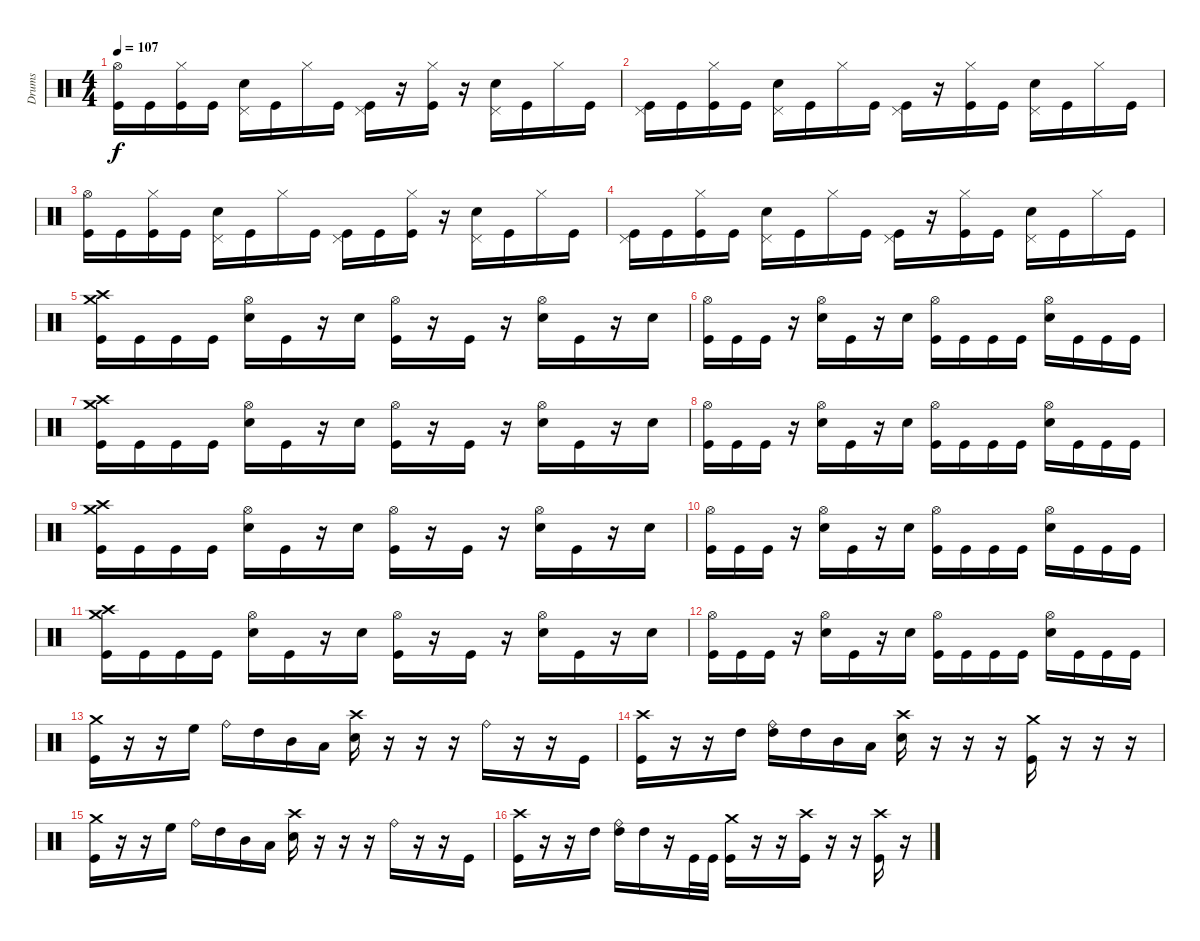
\track ("Drums" "Drums") {instrument percussion}
\staff {score}
\articulation defaults
\ts (4 4)
\tempo 107
\clef neutral
\ks c
("Hi-Hat (open)" "Kick (hit)").16{dy f} "Kick (hit)".16 ("Hi-Hat (closed)" "Kick (hit)").16 "Kick (hit)".16 ("Pedal Hi-Hat (hit)" "Electric Snare (hit)").16 "Kick (hit)".16 "Hi-Hat (closed)".16 "Kick (hit)".16 ("Pedal Hi-Hat (hit)" "Kick (hit)").16 r.16 ("Hi-Hat (closed)" "Kick (hit)").16 r.16 ("Pedal Hi-Hat (hit)" "Electric Snare (hit)").16 "Kick (hit)".16 "Hi-Hat (closed)".16 "Kick (hit)".16 |
("Pedal Hi-Hat (hit)" "Kick (hit)").16 "Kick (hit)".16 ("Hi-Hat (closed)" "Kick (hit)").16 "Kick (hit)".16 ("Pedal Hi-Hat (hit)" "Electric Snare (hit)").16 "Kick (hit)".16 "Hi-Hat (closed)".16 "Kick (hit)".16 ("Pedal Hi-Hat (hit)" "Kick (hit)").16 r.16 ("Hi-Hat (closed)" "Kick (hit)").16 "Kick (hit)".16 ("Pedal Hi-Hat (hit)" "Electric Snare (hit)").16 "Kick (hit)".16 "Hi-Hat (closed)".16 "Kick (hit)".16 |
("Hi-Hat (open)" "Kick (hit)").16 "Kick (hit)".16 ("Hi-Hat (closed)" "Kick (hit)").16 "Kick (hit)".16 ("Pedal Hi-Hat (hit)" "Electric Snare (hit)").16 "Kick (hit)".16 "Hi-Hat (closed)".16 "Kick (hit)".16 ("Pedal Hi-Hat (hit)" "Kick (hit)").16 "Kick (hit)".16 ("Hi-Hat (closed)" "Kick (hit)").16 r.16 ("Pedal Hi-Hat (hit)" "Electric Snare (hit)").16 "Kick (hit)".16 "Hi-Hat (closed)".16 "Kick (hit)".16 |
("Pedal Hi-Hat (hit)" "Kick (hit)").16 "Kick (hit)".16 ("Hi-Hat (closed)" "Kick (hit)").16 "Kick (hit)".16 ("Pedal Hi-Hat (hit)" "Electric Snare (hit)").16 "Kick (hit)".16 "Hi-Hat (closed)".16 "Kick (hit)".16 ("Pedal Hi-Hat (hit)" "Kick (hit)").16 r.16 ("Hi-Hat (closed)" "Kick (hit)").16 "Kick (hit)".16 ("Pedal Hi-Hat (hit)" "Electric Snare (hit)").16 "Kick (hit)".16 "Hi-Hat (closed)".16 "Kick (hit)".16 |
("Crash high (hit)" "Kick (hit)" "Crash medium (hit)").16 "Kick (hit)".16 "Kick (hit)".16 "Kick (hit)".16 ("Hi-Hat (open)" "Electric Snare (hit)").16 "Kick (hit)".16 r.16 "Electric Snare (hit)".16 ("Hi-Hat (open)" "Kick (hit)").16 r.16 "Kick (hit)".16 r.16 ("Hi-Hat (open)" "Electric Snare (hit)").16 "Kick (hit)".16 r.16 "Electric Snare (hit)".16 |
("Hi-Hat (open)" "Kick (hit)").16 "Kick (hit)".16 "Kick (hit)".16 r.16 ("Hi-Hat (open)" "Electric Snare (hit)").16 "Kick (hit)".16 r.16 "Electric Snare (hit)".16 ("Hi-Hat (open)" "Kick (hit)").16 "Kick (hit)".16 "Kick (hit)".16 "Kick (hit)".16 ("Hi-Hat (open)" "Electric Snare (hit)").16 "Kick (hit)".16 "Kick (hit)".16 "Kick (hit)".16 |
("Crash high (hit)" "Kick (hit)" "Crash medium (hit)").16 "Kick (hit)".16 "Kick (hit)".16 "Kick (hit)".16 ("Hi-Hat (open)" "Electric Snare (hit)").16 "Kick (hit)".16 r.16 "Electric Snare (hit)".16 ("Hi-Hat (open)" "Kick (hit)").16 r.16 "Kick (hit)".16 r.16 ("Hi-Hat (open)" "Electric Snare (hit)").16 "Kick (hit)".16 r.16 "Electric Snare (hit)".16 |
("Hi-Hat (open)" "Kick (hit)").16 "Kick (hit)".16 "Kick (hit)".16 r.16 ("Hi-Hat (open)" "Electric Snare (hit)").16 "Kick (hit)".16 r.16 "Electric Snare (hit)".16 ("Hi-Hat (open)" "Kick (hit)").16 "Kick (hit)".16 "Kick (hit)".16 "Kick (hit)".16 ("Hi-Hat (open)" "Electric Snare (hit)").16 "Kick (hit)".16 "Kick (hit)".16 "Kick (hit)".16 |
("Crash high (hit)" "Kick (hit)" "Crash medium (hit)").16 "Kick (hit)".16 "Kick (hit)".16 "Kick (hit)".16 ("Hi-Hat (open)" "Electric Snare (hit)").16 "Kick (hit)".16 r.16 "Electric Snare (hit)".16 ("Hi-Hat (open)" "Kick (hit)").16 r.16 "Kick (hit)".16 r.16 ("Hi-Hat (open)" "Electric Snare (hit)").16 "Kick (hit)".16 r.16 "Electric Snare (hit)".16 |
("Hi-Hat (open)" "Kick (hit)").16 "Kick (hit)".16 "Kick (hit)".16 r.16 ("Hi-Hat (open)" "Electric Snare (hit)").16 "Kick (hit)".16 r.16 "Electric Snare (hit)".16 ("Hi-Hat (open)" "Kick (hit)").16 "Kick (hit)".16 "Kick (hit)".16 "Kick (hit)".16 ("Hi-Hat (open)" "Electric Snare (hit)").16 "Kick (hit)".16 "Kick (hit)".16 "Kick (hit)".16 |
("Crash high (hit)" "Kick (hit)" "Crash medium (hit)").16 "Kick (hit)".16 "Kick (hit)".16 "Kick (hit)".16 ("Hi-Hat (open)" "Electric Snare (hit)").16 "Kick (hit)".16 r.16 "Electric Snare (hit)".16 ("Hi-Hat (open)" "Kick (hit)").16 r.16 "Kick (hit)".16 r.16 ("Hi-Hat (open)" "Electric Snare (hit)").16 "Kick (hit)".16 r.16 "Electric Snare (hit)".16 |
("Hi-Hat (open)" "Kick (hit)").16 "Kick (hit)".16 "Kick (hit)".16 r.16 ("Hi-Hat (open)" "Electric Snare (hit)").16 "Kick (hit)".16 r.16 "Electric Snare (hit)".16 ("Hi-Hat (open)" "Kick (hit)").16 "Kick (hit)".16 "Kick (hit)".16 "Kick (hit)".16 ("Hi-Hat (open)" "Electric Snare (hit)").16 "Kick (hit)".16 "Kick (hit)".16 "Kick (hit)".16 |
("Crash medium (hit)" "Kick (hit)").16 r.16 r.16 "High Floor Tom (hit)".16 "Ride (bell)".16 "High Tom (hit)".16 "Mid Tom (hit)".16 "Low Tom (hit)".16 ("Crash high (hit)" "Electric Snare (hit)").16 r.16 r.16 r.16 "Ride (bell)".16 r.16 r.16 "Kick (hit)".16 |
("Crash high (hit)" "Kick (hit)").16 r.16 r.16 "High Tom (hit)".16 ("Ride (bell)" "High Tom (hit)").16 "High Tom (hit)".16 "Mid Tom (hit)".16 "Low Tom (hit)".16 ("Crash high (hit)" "Electric Snare (hit)").16 r.16 r.16 r.16 ("Crash medium (hit)" "Kick (hit)").16 r.16 r.16 r.16 |
("Crash medium (hit)" "Kick (hit)").16 r.16 r.16 "High Floor Tom (hit)".16 "Ride (bell)".16 "High Tom (hit)".16 "Mid Tom (hit)".16 "Low Tom (hit)".16 ("Crash high (hit)" "Electric Snare (hit)").16 r.16 r.16 r.16 "Ride (bell)".16 r.16 r.16 "Kick (hit)".16 |
("Crash high (hit)" "Kick (hit)").16 r.16 r.16 "High Tom (hit)".16 ("Ride (bell)" "High Tom (hit)").16 "High Tom (hit)".16 r.16 "Kick (hit)".32 "Kick (hit)".32 ("Crash medium (hit)" "Kick (hit)").16 r.16 r.16 ("Crash high (hit)" "Kick (hit)").16 r.16 r.16 ("Crash high (hit)" "Kick (hit)").16 r.16
